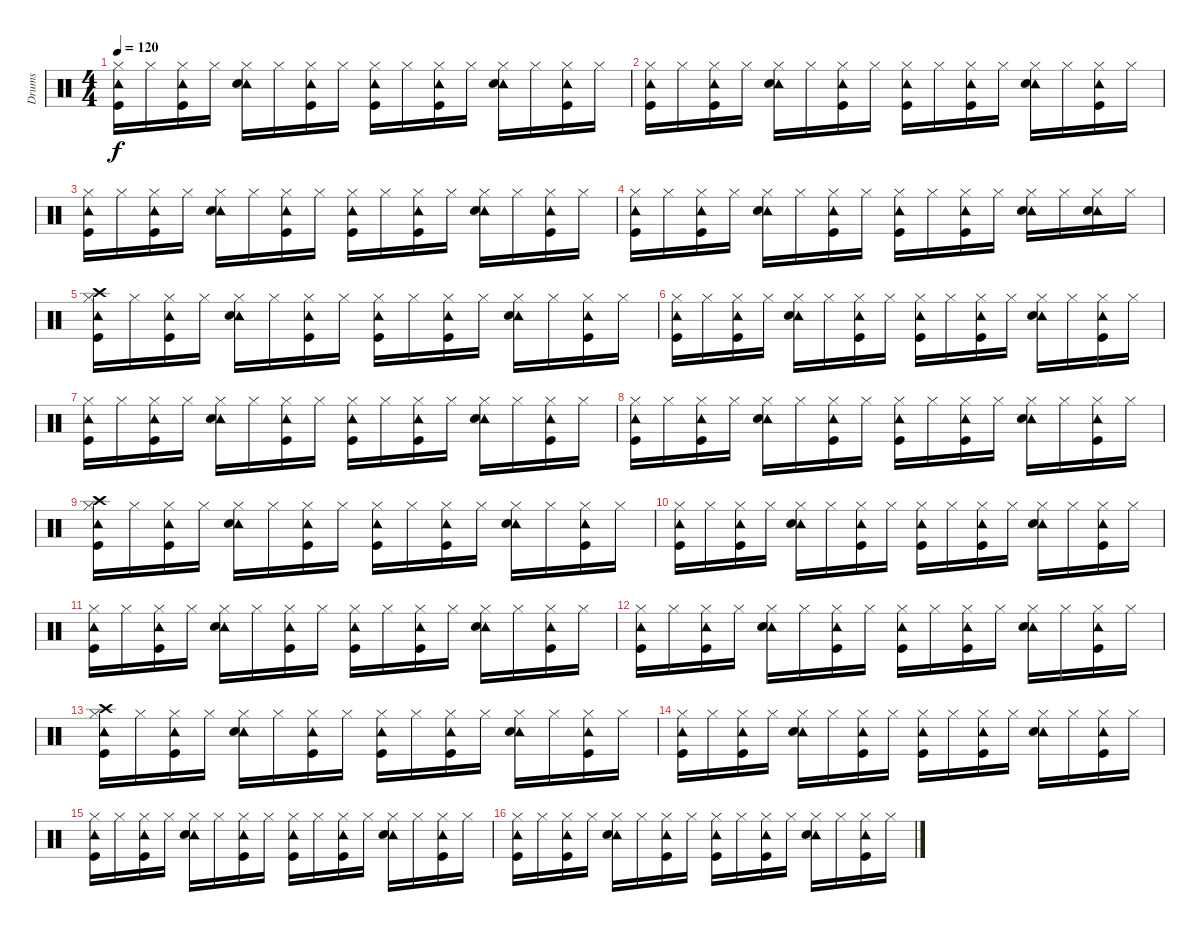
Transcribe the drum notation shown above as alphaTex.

\track ("Drums" "Drums") {instrument percussion}
\staff {score}
\articulation defaults
\ts (4 4)
\tempo 120
\clef neutral
\ks c
("Hi-Hat (closed)" "Tambourine (hit)" "Kick (hit)").16{dy f} "Hi-Hat (closed)".16 ("Hi-Hat (closed)" "Tambourine (hit)" "Kick (hit)").16 "Hi-Hat (closed)".16 ("Hi-Hat (closed)" "Tambourine (hit)" "Snare (hit) 2").16 "Hi-Hat (closed)".16 ("Hi-Hat (closed)" "Tambourine (hit)" "Kick (hit)").16 "Hi-Hat (closed)".16 ("Hi-Hat (closed)" "Tambourine (hit)" "Kick (hit)").16 "Hi-Hat (closed)".16 ("Hi-Hat (closed)" "Tambourine (hit)" "Kick (hit)").16 "Hi-Hat (closed)".16 ("Hi-Hat (closed)" "Tambourine (hit)" "Snare (hit) 2").16 "Hi-Hat (closed)".16 ("Hi-Hat (closed)" "Tambourine (hit)" "Kick (hit)").16 "Hi-Hat (closed)".16 |
("Hi-Hat (closed)" "Tambourine (hit)" "Kick (hit)").16 "Hi-Hat (closed)".16 ("Hi-Hat (closed)" "Tambourine (hit)" "Kick (hit)").16 "Hi-Hat (closed)".16 ("Hi-Hat (closed)" "Tambourine (hit)" "Snare (hit) 2").16 "Hi-Hat (closed)".16 ("Hi-Hat (closed)" "Tambourine (hit)" "Kick (hit)").16 "Hi-Hat (closed)".16 ("Hi-Hat (closed)" "Tambourine (hit)" "Kick (hit)").16 "Hi-Hat (closed)".16 ("Hi-Hat (closed)" "Tambourine (hit)" "Kick (hit)").16 "Hi-Hat (closed)".16 ("Hi-Hat (closed)" "Tambourine (hit)" "Snare (hit) 2").16 "Hi-Hat (closed)".16 ("Hi-Hat (closed)" "Tambourine (hit)" "Kick (hit)").16 "Hi-Hat (closed)".16 |
("Hi-Hat (closed)" "Tambourine (hit)" "Kick (hit)").16 "Hi-Hat (closed)".16 ("Hi-Hat (closed)" "Tambourine (hit)" "Kick (hit)").16 "Hi-Hat (closed)".16 ("Hi-Hat (closed)" "Tambourine (hit)" "Snare (hit) 2").16 "Hi-Hat (closed)".16 ("Hi-Hat (closed)" "Tambourine (hit)" "Kick (hit)").16 "Hi-Hat (closed)".16 ("Hi-Hat (closed)" "Tambourine (hit)" "Kick (hit)").16 "Hi-Hat (closed)".16 ("Hi-Hat (closed)" "Tambourine (hit)" "Kick (hit)").16 "Hi-Hat (closed)".16 ("Hi-Hat (closed)" "Tambourine (hit)" "Snare (hit) 2").16 "Hi-Hat (closed)".16 ("Hi-Hat (closed)" "Tambourine (hit)" "Kick (hit)").16 "Hi-Hat (closed)".16 |
("Hi-Hat (closed)" "Tambourine (hit)" "Kick (hit)").16 "Hi-Hat (closed)".16 ("Hi-Hat (closed)" "Tambourine (hit)" "Kick (hit)").16 "Hi-Hat (closed)".16 ("Hi-Hat (closed)" "Tambourine (hit)" "Snare (hit) 2").16 "Hi-Hat (closed)".16 ("Hi-Hat (closed)" "Tambourine (hit)" "Kick (hit)").16 "Hi-Hat (closed)".16 ("Hi-Hat (closed)" "Tambourine (hit)" "Kick (hit)").16 "Hi-Hat (closed)".16 ("Hi-Hat (closed)" "Tambourine (hit)" "Kick (hit)").16 "Hi-Hat (closed)".16 ("Hi-Hat (closed)" "Tambourine (hit)" "Snare (hit) 2").16 "Hi-Hat (closed)".16 ("Hi-Hat (closed)" "Tambourine (hit)" "Snare (hit) 2").16 "Hi-Hat (closed)".16 |
("Crash high (hit)" "Hi-Hat (closed)" "Tambourine (hit)" "Kick (hit)").16 "Hi-Hat (closed)".16 ("Hi-Hat (closed)" "Tambourine (hit)" "Kick (hit)").16 "Hi-Hat (closed)".16 ("Hi-Hat (closed)" "Tambourine (hit)" "Snare (hit) 2").16 "Hi-Hat (closed)".16 ("Hi-Hat (closed)" "Tambourine (hit)" "Kick (hit)").16 "Hi-Hat (closed)".16 ("Hi-Hat (closed)" "Tambourine (hit)" "Kick (hit)").16 "Hi-Hat (closed)".16 ("Hi-Hat (closed)" "Tambourine (hit)" "Kick (hit)").16 "Hi-Hat (closed)".16 ("Hi-Hat (closed)" "Tambourine (hit)" "Snare (hit) 2").16 "Hi-Hat (closed)".16 ("Hi-Hat (closed)" "Tambourine (hit)" "Kick (hit)").16 "Hi-Hat (closed)".16 |
("Hi-Hat (closed)" "Tambourine (hit)" "Kick (hit)").16 "Hi-Hat (closed)".16 ("Hi-Hat (closed)" "Tambourine (hit)" "Kick (hit)").16 "Hi-Hat (closed)".16 ("Hi-Hat (closed)" "Tambourine (hit)" "Snare (hit) 2").16 "Hi-Hat (closed)".16 ("Hi-Hat (closed)" "Tambourine (hit)" "Kick (hit)").16 "Hi-Hat (closed)".16 ("Hi-Hat (closed)" "Tambourine (hit)" "Kick (hit)").16 "Hi-Hat (closed)".16 ("Hi-Hat (closed)" "Tambourine (hit)" "Kick (hit)").16 "Hi-Hat (closed)".16 ("Hi-Hat (closed)" "Tambourine (hit)" "Snare (hit) 2").16 "Hi-Hat (closed)".16 ("Hi-Hat (closed)" "Tambourine (hit)" "Kick (hit)").16 "Hi-Hat (closed)".16 |
("Hi-Hat (closed)" "Tambourine (hit)" "Kick (hit)").16 "Hi-Hat (closed)".16 ("Hi-Hat (closed)" "Tambourine (hit)" "Kick (hit)").16 "Hi-Hat (closed)".16 ("Hi-Hat (closed)" "Tambourine (hit)" "Snare (hit) 2").16 "Hi-Hat (closed)".16 ("Hi-Hat (closed)" "Tambourine (hit)" "Kick (hit)").16 "Hi-Hat (closed)".16 ("Hi-Hat (closed)" "Tambourine (hit)" "Kick (hit)").16 "Hi-Hat (closed)".16 ("Hi-Hat (closed)" "Tambourine (hit)" "Kick (hit)").16 "Hi-Hat (closed)".16 ("Hi-Hat (closed)" "Tambourine (hit)" "Snare (hit) 2").16 "Hi-Hat (closed)".16 ("Hi-Hat (closed)" "Tambourine (hit)" "Kick (hit)").16 "Hi-Hat (closed)".16 |
("Hi-Hat (closed)" "Tambourine (hit)" "Kick (hit)").16 "Hi-Hat (closed)".16 ("Hi-Hat (closed)" "Tambourine (hit)" "Kick (hit)").16 "Hi-Hat (closed)".16 ("Hi-Hat (closed)" "Tambourine (hit)" "Snare (hit) 2").16 "Hi-Hat (closed)".16 ("Hi-Hat (closed)" "Tambourine (hit)" "Kick (hit)").16 "Hi-Hat (closed)".16 ("Hi-Hat (closed)" "Tambourine (hit)" "Kick (hit)").16 "Hi-Hat (closed)".16 ("Hi-Hat (closed)" "Tambourine (hit)" "Kick (hit)").16 "Hi-Hat (closed)".16 ("Hi-Hat (closed)" "Tambourine (hit)" "Snare (hit) 2").16 "Hi-Hat (closed)".16 ("Hi-Hat (closed)" "Tambourine (hit)" "Kick (hit)").16 "Hi-Hat (closed)".16 |
("Crash high (hit)" "Hi-Hat (closed)" "Tambourine (hit)" "Kick (hit)").16 "Hi-Hat (closed)".16 ("Hi-Hat (closed)" "Tambourine (hit)" "Kick (hit)").16 "Hi-Hat (closed)".16 ("Hi-Hat (closed)" "Tambourine (hit)" "Snare (hit) 2").16 "Hi-Hat (closed)".16 ("Hi-Hat (closed)" "Tambourine (hit)" "Kick (hit)").16 "Hi-Hat (closed)".16 ("Hi-Hat (closed)" "Tambourine (hit)" "Kick (hit)").16 "Hi-Hat (closed)".16 ("Hi-Hat (closed)" "Tambourine (hit)" "Kick (hit)").16 "Hi-Hat (closed)".16 ("Hi-Hat (closed)" "Tambourine (hit)" "Snare (hit) 2").16 "Hi-Hat (closed)".16 ("Hi-Hat (closed)" "Tambourine (hit)" "Kick (hit)").16 "Hi-Hat (closed)".16 |
("Hi-Hat (closed)" "Tambourine (hit)" "Kick (hit)").16 "Hi-Hat (closed)".16 ("Hi-Hat (closed)" "Tambourine (hit)" "Kick (hit)").16 "Hi-Hat (closed)".16 ("Hi-Hat (closed)" "Tambourine (hit)" "Snare (hit) 2").16 "Hi-Hat (closed)".16 ("Hi-Hat (closed)" "Tambourine (hit)" "Kick (hit)").16 "Hi-Hat (closed)".16 ("Hi-Hat (closed)" "Tambourine (hit)" "Kick (hit)").16 "Hi-Hat (closed)".16 ("Hi-Hat (closed)" "Tambourine (hit)" "Kick (hit)").16 "Hi-Hat (closed)".16 ("Hi-Hat (closed)" "Tambourine (hit)" "Snare (hit) 2").16 "Hi-Hat (closed)".16 ("Hi-Hat (closed)" "Tambourine (hit)" "Kick (hit)").16 "Hi-Hat (closed)".16 |
("Hi-Hat (closed)" "Tambourine (hit)" "Kick (hit)").16 "Hi-Hat (closed)".16 ("Hi-Hat (closed)" "Tambourine (hit)" "Kick (hit)").16 "Hi-Hat (closed)".16 ("Hi-Hat (closed)" "Tambourine (hit)" "Snare (hit) 2").16 "Hi-Hat (closed)".16 ("Hi-Hat (closed)" "Tambourine (hit)" "Kick (hit)").16 "Hi-Hat (closed)".16 ("Hi-Hat (closed)" "Tambourine (hit)" "Kick (hit)").16 "Hi-Hat (closed)".16 ("Hi-Hat (closed)" "Tambourine (hit)" "Kick (hit)").16 "Hi-Hat (closed)".16 ("Hi-Hat (closed)" "Tambourine (hit)" "Snare (hit) 2").16 "Hi-Hat (closed)".16 ("Hi-Hat (closed)" "Tambourine (hit)" "Kick (hit)").16 "Hi-Hat (closed)".16 |
("Hi-Hat (closed)" "Tambourine (hit)" "Kick (hit)").16 "Hi-Hat (closed)".16 ("Hi-Hat (closed)" "Tambourine (hit)" "Kick (hit)").16 "Hi-Hat (closed)".16 ("Hi-Hat (closed)" "Tambourine (hit)" "Snare (hit) 2").16 "Hi-Hat (closed)".16 ("Hi-Hat (closed)" "Tambourine (hit)" "Kick (hit)").16 "Hi-Hat (closed)".16 ("Hi-Hat (closed)" "Tambourine (hit)" "Kick (hit)").16 "Hi-Hat (closed)".16 ("Hi-Hat (closed)" "Tambourine (hit)" "Kick (hit)").16 "Hi-Hat (closed)".16 ("Hi-Hat (closed)" "Tambourine (hit)" "Snare (hit) 2").16 "Hi-Hat (closed)".16 ("Hi-Hat (closed)" "Tambourine (hit)" "Kick (hit)").16 "Hi-Hat (closed)".16 |
("Crash high (hit)" "Hi-Hat (closed)" "Tambourine (hit)" "Kick (hit)").16 "Hi-Hat (closed)".16 ("Hi-Hat (closed)" "Tambourine (hit)" "Kick (hit)").16 "Hi-Hat (closed)".16 ("Hi-Hat (closed)" "Tambourine (hit)" "Snare (hit) 2").16 "Hi-Hat (closed)".16 ("Hi-Hat (closed)" "Tambourine (hit)" "Kick (hit)").16 "Hi-Hat (closed)".16 ("Hi-Hat (closed)" "Tambourine (hit)" "Kick (hit)").16 "Hi-Hat (closed)".16 ("Hi-Hat (closed)" "Tambourine (hit)" "Kick (hit)").16 "Hi-Hat (closed)".16 ("Hi-Hat (closed)" "Tambourine (hit)" "Snare (hit) 2").16 "Hi-Hat (closed)".16 ("Hi-Hat (closed)" "Tambourine (hit)" "Kick (hit)").16 "Hi-Hat (closed)".16 |
("Hi-Hat (closed)" "Tambourine (hit)" "Kick (hit)").16 "Hi-Hat (closed)".16 ("Hi-Hat (closed)" "Tambourine (hit)" "Kick (hit)").16 "Hi-Hat (closed)".16 ("Hi-Hat (closed)" "Tambourine (hit)" "Snare (hit) 2").16 "Hi-Hat (closed)".16 ("Hi-Hat (closed)" "Tambourine (hit)" "Kick (hit)").16 "Hi-Hat (closed)".16 ("Hi-Hat (closed)" "Tambourine (hit)" "Kick (hit)").16 "Hi-Hat (closed)".16 ("Hi-Hat (closed)" "Tambourine (hit)" "Kick (hit)").16 "Hi-Hat (closed)".16 ("Hi-Hat (closed)" "Tambourine (hit)" "Snare (hit) 2").16 "Hi-Hat (closed)".16 ("Hi-Hat (closed)" "Tambourine (hit)" "Kick (hit)").16 "Hi-Hat (closed)".16 |
("Hi-Hat (closed)" "Tambourine (hit)" "Kick (hit)").16 "Hi-Hat (closed)".16 ("Hi-Hat (closed)" "Tambourine (hit)" "Kick (hit)").16 "Hi-Hat (closed)".16 ("Hi-Hat (closed)" "Tambourine (hit)" "Snare (hit) 2").16 "Hi-Hat (closed)".16 ("Hi-Hat (closed)" "Tambourine (hit)" "Kick (hit)").16 "Hi-Hat (closed)".16 ("Hi-Hat (closed)" "Tambourine (hit)" "Kick (hit)").16 "Hi-Hat (closed)".16 ("Hi-Hat (closed)" "Tambourine (hit)" "Kick (hit)").16 "Hi-Hat (closed)".16 ("Hi-Hat (closed)" "Tambourine (hit)" "Snare (hit) 2").16 "Hi-Hat (closed)".16 ("Hi-Hat (closed)" "Tambourine (hit)" "Kick (hit)").16 "Hi-Hat (closed)".16 |
("Hi-Hat (closed)" "Tambourine (hit)" "Kick (hit)").16 "Hi-Hat (closed)".16 ("Hi-Hat (closed)" "Tambourine (hit)" "Kick (hit)").16 "Hi-Hat (closed)".16 ("Hi-Hat (closed)" "Tambourine (hit)" "Snare (hit) 2").16 "Hi-Hat (closed)".16 ("Hi-Hat (closed)" "Tambourine (hit)" "Kick (hit)").16 "Hi-Hat (closed)".16 ("Hi-Hat (closed)" "Tambourine (hit)" "Kick (hit)").16 "Hi-Hat (closed)".16 ("Hi-Hat (closed)" "Tambourine (hit)" "Kick (hit)").16 "Hi-Hat (closed)".16 ("Hi-Hat (closed)" "Tambourine (hit)" "Snare (hit) 2").16 "Hi-Hat (closed)".16 ("Hi-Hat (closed)" "Tambourine (hit)" "Kick (hit)").16 "Hi-Hat (closed)".16
